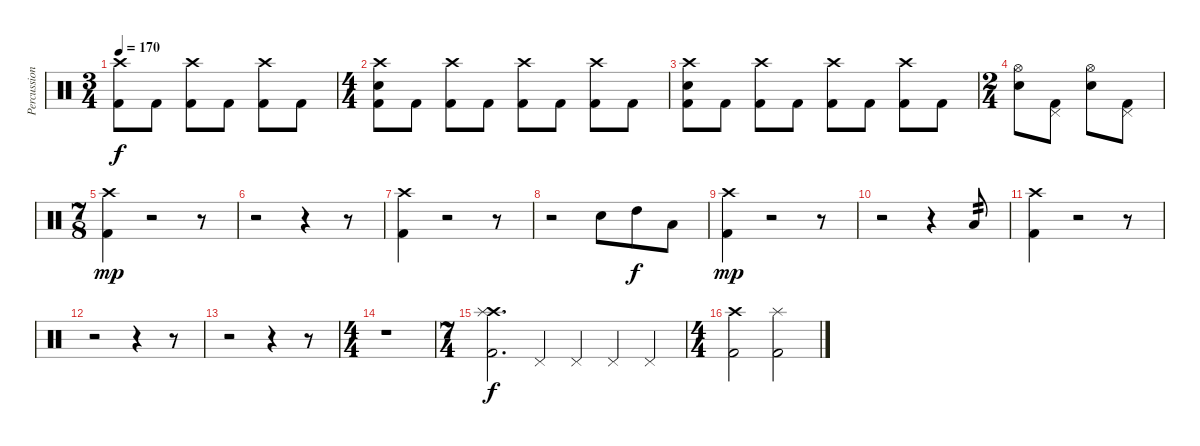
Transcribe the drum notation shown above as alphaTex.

\track ("Percussion" "Percussion") {instrument percussion}
\staff {score}
\articulation defaults
\ts (3 4)
\tempo 170
\clef neutral
\ks c
("Crash high (hit)" "Kick (hit) 2").8{dy f} "Kick (hit) 2".8 ("Crash high (hit)" "Kick (hit) 2").8 "Kick (hit) 2".8 ("Crash high (hit)" "Kick (hit) 2").8 "Kick (hit) 2".8 |
\ts (4 4)
("Crash high (hit)" "Electric Snare (hit)" "Kick (hit) 2").8 "Kick (hit) 2".8 ("Crash high (hit)" "Kick (hit) 2").8 "Kick (hit) 2".8 ("Crash high (hit)" "Kick (hit) 2").8 "Kick (hit) 2".8 ("Crash high (hit)" "Kick (hit) 2").8 "Kick (hit) 2".8 |
("Crash high (hit)" "Electric Snare (hit)" "Kick (hit) 2").8 "Kick (hit) 2".8 ("Crash high (hit)" "Kick (hit) 2").8 "Kick (hit) 2".8 ("Crash high (hit)" "Kick (hit) 2").8 "Kick (hit) 2".8 ("Crash high (hit)" "Kick (hit) 2").8 "Kick (hit) 2".8 |
\ts (2 4)
("Hi-Hat (open)" "Electric Snare (hit)").8 ("Pedal Hi-Hat (hit)" "Kick (hit) 2").8 ("Hi-Hat (open)" "Electric Snare (hit)").8 ("Pedal Hi-Hat (hit)" "Kick (hit) 2").8 |
\ts (7 8)
("Crash high (hit)" "Kick (hit) 2").4{dy mp} r.2 r.8 |
r.2 r.4 r.8 |
("Crash high (hit)" "Kick (hit) 2").4 r.2 r.8 |
r.2 "Electric Snare (hit)".8 "High Tom (hit)".8{dy f} "Low Tom (hit)".8 |
("Crash high (hit)" "Kick (hit) 2").4{dy mp} r.2 r.8 |
r.2 r.4 "Low Floor Tom (hit)".8{tp 2} |
("Crash high (hit)" "Kick (hit) 2").4 r.2 r.8 |
r.2 r.4 r.8 |
r.2 r.4 r.8 |
\ts (4 4)
r.1 |
\ts (7 4)
("Crash high (hit)" "Splash (hit)" "Kick (hit) 2").2{d dy f} "Pedal Hi-Hat (hit)".4 "Pedal Hi-Hat (hit)".4 "Pedal Hi-Hat (hit)".4 "Pedal Hi-Hat (hit)".4 |
\ts (4 4)
("Crash high (hit)" "Kick (hit) 2").2 ("Splash (hit)" "Kick (hit) 2").2
